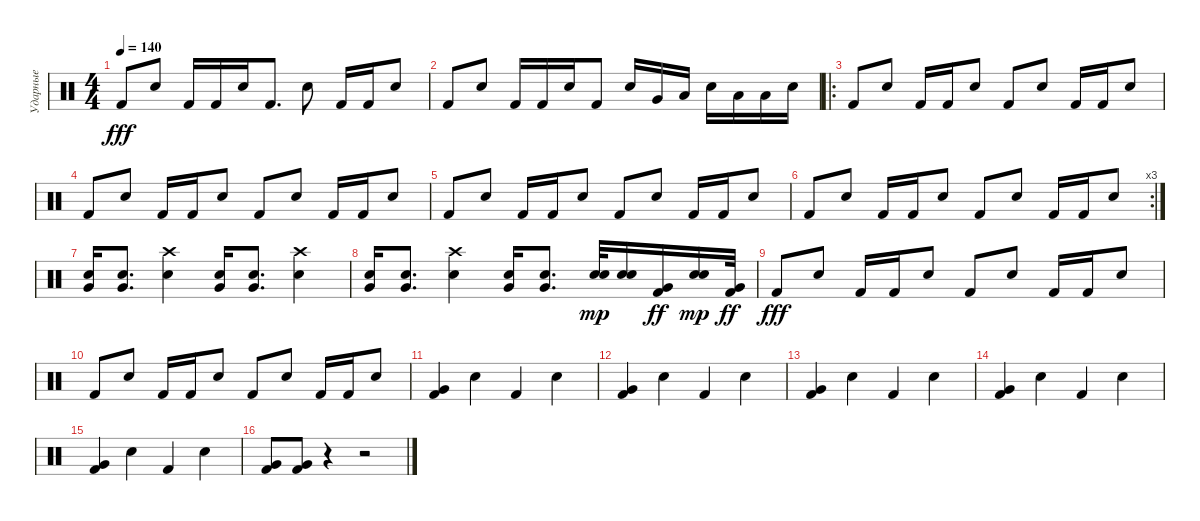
\track ("Ударные" "Ударные") {instrument percussion}
\staff {score}
\articulation defaults
\ts (4 4)
\tempo 140
\clef neutral
\ks c "Kick (hit) 2".8{dy fff} "Electric Snare (hit)".8 "Kick (hit) 2".16 "Kick (hit) 2".16 "Electric Snare (hit)".16 "Kick (hit) 2".8{d} "Electric Snare (hit)".8 "Kick (hit) 2".16 "Kick (hit) 2".16 "Electric Snare (hit)".8
|
"Kick (hit) 2".8 "Electric Snare (hit)".8 "Kick (hit) 2".16 "Kick (hit) 2".16 "Electric Snare (hit)".16 "Kick (hit) 2".8 "Electric Snare (hit)".16 "Very Low Tom (hit)".16 "Low Floor Tom (hit)".16 "Electric Snare (hit)".16 "Low Floor Tom (hit)".16 "Low Floor Tom (hit)".16 "Electric Snare (hit)".16 |
\ro "Kick (hit) 2".8 "Electric Snare (hit)".8 "Kick (hit) 2".16 "Kick (hit) 2".16 "Electric Snare (hit)".8 "Kick (hit) 2".8 "Electric Snare (hit)".8 "Kick (hit) 2".16 "Kick (hit) 2".16 "Electric Snare (hit)".8
|
"Kick (hit) 2".8 "Electric Snare (hit)".8 "Kick (hit) 2".16 "Kick (hit) 2".16 "Electric Snare (hit)".8 "Kick (hit) 2".8 "Electric Snare (hit)".8 "Kick (hit) 2".16 "Kick (hit) 2".16 "Electric Snare (hit)".8 |
"Kick (hit) 2".8 "Electric Snare (hit)".8 "Kick (hit) 2".16 "Kick (hit) 2".16 "Electric Snare (hit)".8 "Kick (hit) 2".8 "Electric Snare (hit)".8 "Kick (hit) 2".16 "Kick (hit) 2".16 "Electric Snare (hit)".8 |
\rc 3 "Kick (hit) 2".8 "Electric Snare (hit)".8 "Kick (hit) 2".16 "Kick (hit) 2".16 "Electric Snare (hit)".8 "Kick (hit) 2".8 "Electric Snare (hit)".8 "Kick (hit) 2".16 "Kick (hit) 2".16 "Electric Snare (hit)".8
|
("Electric Snare (hit)" "Very Low Tom (hit)").16 ("Electric Snare (hit)" "Very Low Tom (hit)").8{d} ("Electric Snare (hit)" "Crash high (hit)").4 ("Electric Snare (hit)" "Very Low Tom (hit)").16 ("Electric Snare (hit)" "Very Low Tom (hit)").8{d} ("Electric Snare (hit)" "Crash high (hit)").4 |
("Electric Snare (hit)" "Very Low Tom (hit)").16 ("Electric Snare (hit)" "Very Low Tom (hit)").8{d} ("Electric Snare (hit)" "Crash high (hit)").4 ("Electric Snare (hit)" "Very Low Tom (hit)").16 ("Electric Snare (hit)" "Very Low Tom (hit)").8{d} ("Electric Snare (hit)" "Snare (hit) 2").32{dy mp} ("Electric Snare (hit)" "Snare (hit) 2").16 ("Kick (hit) 2" "Very Low Tom (hit)").16{dy ff} ("Electric Snare (hit)" "Snare (hit) 2").16{dy mp} ("Kick (hit) 2" "Very Low Tom (hit)").32{dy ff} |
"Kick (hit) 2".8{dy fff} "Electric Snare (hit)".8 "Kick (hit) 2".16 "Kick (hit) 2".16 "Electric Snare (hit)".8 "Kick (hit) 2".8 "Electric Snare (hit)".8 "Kick (hit) 2".16 "Kick (hit) 2".16 "Electric Snare (hit)".8 |
"Kick (hit) 2".8 "Electric Snare (hit)".8 "Kick (hit) 2".16 "Kick (hit) 2".16 "Electric Snare (hit)".8 "Kick (hit) 2".8 "Electric Snare (hit)".8 "Kick (hit) 2".16 "Kick (hit) 2".16 "Electric Snare (hit)".8 |
("Kick (hit) 2" "Very Low Tom (hit)").4 "Electric Snare (hit)".4 "Kick (hit) 2".4 "Electric Snare (hit)".4 |
("Kick (hit) 2" "Very Low Tom (hit)").4 "Electric Snare (hit)".4 "Kick (hit) 2".4 "Electric Snare (hit)".4 |
("Kick (hit) 2" "Very Low Tom (hit)").4 "Electric Snare (hit)".4 "Kick (hit) 2".4 "Electric Snare (hit)".4 |
("Kick (hit) 2" "Very Low Tom (hit)").4 "Electric Snare (hit)".4 "Kick (hit) 2".4 "Electric Snare (hit)".4 |
("Kick (hit) 2" "Very Low Tom (hit)").4 "Electric Snare (hit)".4 "Kick (hit) 2".4 "Electric Snare (hit)".4 |
("Kick (hit) 2" "Very Low Tom (hit)").8 ("Kick (hit) 2" "Very Low Tom (hit)").8 r.4 r.2
